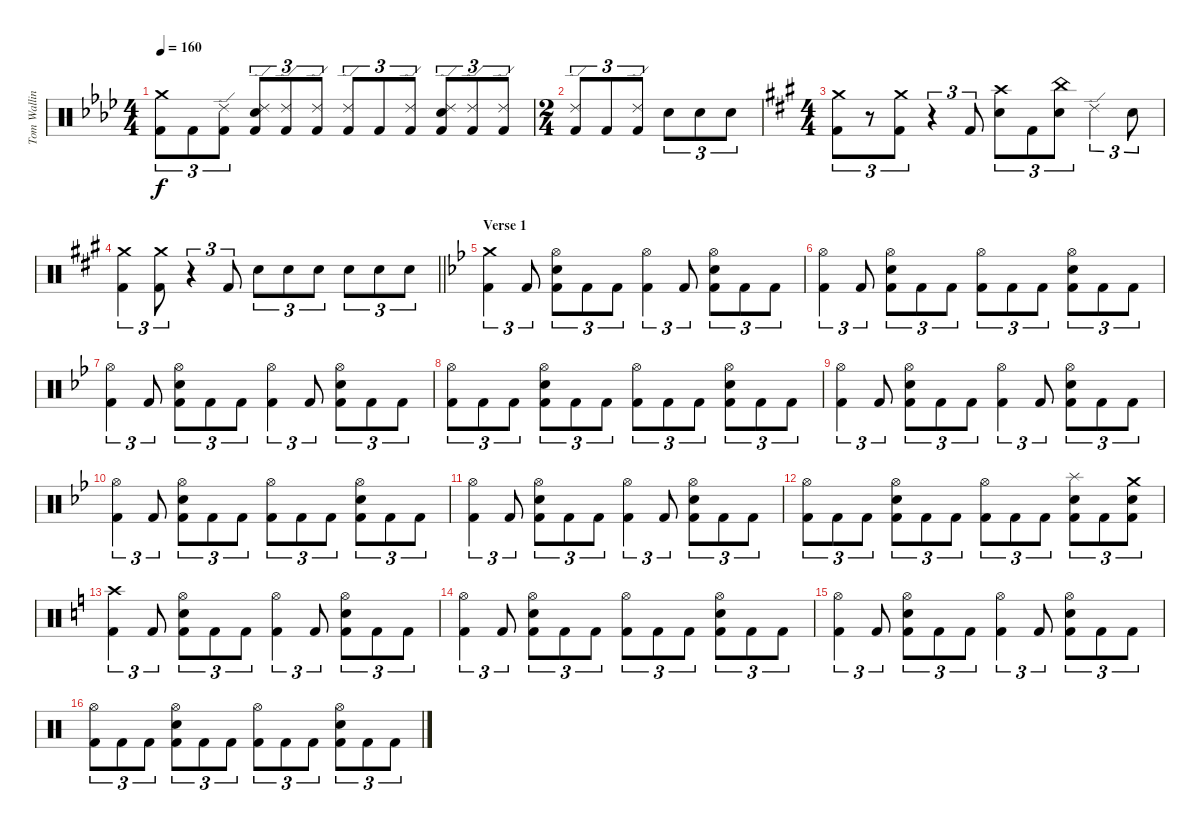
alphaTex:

\track ("Tom Walling (drums)" "Tom Wallin") {instrument percussion}
\staff {score}
\articulation defaults
\ts (4 4)
\tempo 160
\clef neutral
\ks fminor
("Crash medium (hit)" "Kick (hit) 2").8{tu (3 2) dy f} "Kick (hit) 2".8{tu (3 2)} ("Ride (edge) 2" "Kick (hit) 2").8{tu (3 2)} ("Ride (edge) 2" "Electric Snare (hit)" "Kick (hit) 2").8{tu (3 2)} ("Ride (edge) 2" "Kick (hit) 2").8{tu (3 2)} ("Ride (edge) 2" "Kick (hit) 2").8{tu (3 2)} ("Ride (edge) 2" "Kick (hit) 2").8{tu (3 2)} "Kick (hit) 2".8{tu (3 2)} ("Ride (edge) 2" "Kick (hit) 2").8{tu (3 2)} ("Ride (edge) 2" "Electric Snare (hit)" "Kick (hit) 2").8{tu (3 2)} ("Ride (edge) 2" "Kick (hit) 2").8{tu (3 2)} ("Ride (edge) 2" "Kick (hit) 2").8{tu (3 2)} |
\ts (2 4)
("Ride (edge) 2" "Kick (hit) 2").8{tu (3 2)} "Kick (hit) 2".8{tu (3 2)} ("Ride (edge) 2" "Kick (hit) 2").8{tu (3 2)} "Electric Snare (hit)".8{tu (3 2)} "Electric Snare (hit)".8{tu (3 2)} "Electric Snare (hit)".8{tu (3 2)} |
\ts (4 4)
\ks f#minor
("Crash medium (hit)" "Kick (hit) 2").8{tu (3 2)} r.8{tu (3 2)} ("Crash medium (hit)" "Kick (hit) 2").8{tu (3 2)} r.4{tu (3 2)} "Kick (hit) 2".8{tu (3 2)} ("Crash high (hit)" "Electric Snare (hit)").8{tu (3 2)} "Kick (hit) 2".8{tu (3 2)} ("China (hit)" "Electric Snare (hit)").8{tu (3 2)} "Ride (edge) 2".4{tu (3 2)} "Electric Snare (hit)".8{tu (3 2)} |
\barLineRight lightlight
("Crash medium (hit)" "Kick (hit) 2").4{tu (3 2)} ("Crash medium (hit)" "Kick (hit) 2").8{tu (3 2)} r.4{tu (3 2)} "Kick (hit) 2".8{tu (3 2)} "Electric Snare (hit)".8{tu (3 2)} "Electric Snare (hit)".8{tu (3 2)} "Electric Snare (hit)".8{tu (3 2)} "Electric Snare (hit)".8{tu (3 2)} "Electric Snare (hit)".8{tu (3 2)} "Electric Snare (hit)".8{tu (3 2)} |
\section ("" "Verse 1")
\ks gminor
("Crash medium (hit)" "Kick (hit) 2").4{tu (3 2)} "Kick (hit) 2".8{tu (3 2)} ("Hi-Hat (open)" "Electric Snare (hit)" "Kick (hit) 2").8{tu (3 2)} "Kick (hit) 2".8{tu (3 2)} "Kick (hit) 2".8{tu (3 2)} ("Hi-Hat (open)" "Kick (hit) 2").4{tu (3 2)} "Kick (hit) 2".8{tu (3 2)} ("Hi-Hat (open)" "Electric Snare (hit)" "Kick (hit) 2").8{tu (3 2)} "Kick (hit) 2".8{tu (3 2)} "Kick (hit) 2".8{tu (3 2)} |
("Hi-Hat (open)" "Kick (hit) 2").4{tu (3 2)} "Kick (hit) 2".8{tu (3 2)} ("Hi-Hat (open)" "Electric Snare (hit)" "Kick (hit) 2").8{tu (3 2)} "Kick (hit) 2".8{tu (3 2)} "Kick (hit) 2".8{tu (3 2)} ("Hi-Hat (open)" "Kick (hit) 2").8{tu (3 2)} "Kick (hit) 2".8{tu (3 2)} "Kick (hit) 2".8{tu (3 2)} ("Hi-Hat (open)" "Electric Snare (hit)" "Kick (hit) 2").8{tu (3 2)} "Kick (hit) 2".8{tu (3 2)} "Kick (hit) 2".8{tu (3 2)} |
("Hi-Hat (open)" "Kick (hit) 2").4{tu (3 2)} "Kick (hit) 2".8{tu (3 2)} ("Hi-Hat (open)" "Electric Snare (hit)" "Kick (hit) 2").8{tu (3 2)} "Kick (hit) 2".8{tu (3 2)} "Kick (hit) 2".8{tu (3 2)} ("Hi-Hat (open)" "Kick (hit) 2").4{tu (3 2)} "Kick (hit) 2".8{tu (3 2)} ("Hi-Hat (open)" "Electric Snare (hit)" "Kick (hit) 2").8{tu (3 2)} "Kick (hit) 2".8{tu (3 2)} "Kick (hit) 2".8{tu (3 2)} |
("Hi-Hat (open)" "Kick (hit) 2").8{tu (3 2)} "Kick (hit) 2".8{tu (3 2)} "Kick (hit) 2".8{tu (3 2)} ("Hi-Hat (open)" "Electric Snare (hit)" "Kick (hit) 2").8{tu (3 2)} "Kick (hit) 2".8{tu (3 2)} "Kick (hit) 2".8{tu (3 2)} ("Hi-Hat (open)" "Kick (hit) 2").8{tu (3 2)} "Kick (hit) 2".8{tu (3 2)} "Kick (hit) 2".8{tu (3 2)} ("Hi-Hat (open)" "Electric Snare (hit)" "Kick (hit) 2").8{tu (3 2)} "Kick (hit) 2".8{tu (3 2)} "Kick (hit) 2".8{tu (3 2)} |
("Hi-Hat (open)" "Kick (hit) 2").4{tu (3 2)} "Kick (hit) 2".8{tu (3 2)} ("Hi-Hat (open)" "Electric Snare (hit)" "Kick (hit) 2").8{tu (3 2)} "Kick (hit) 2".8{tu (3 2)} "Kick (hit) 2".8{tu (3 2)} ("Hi-Hat (open)" "Kick (hit) 2").4{tu (3 2)} "Kick (hit) 2".8{tu (3 2)} ("Hi-Hat (open)" "Electric Snare (hit)" "Kick (hit) 2").8{tu (3 2)} "Kick (hit) 2".8{tu (3 2)} "Kick (hit) 2".8{tu (3 2)} |
("Hi-Hat (open)" "Kick (hit) 2").4{tu (3 2)} "Kick (hit) 2".8{tu (3 2)} ("Hi-Hat (open)" "Electric Snare (hit)" "Kick (hit) 2").8{tu (3 2)} "Kick (hit) 2".8{tu (3 2)} "Kick (hit) 2".8{tu (3 2)} ("Hi-Hat (open)" "Kick (hit) 2").8{tu (3 2)} "Kick (hit) 2".8{tu (3 2)} "Kick (hit) 2".8{tu (3 2)} ("Hi-Hat (open)" "Electric Snare (hit)" "Kick (hit) 2").8{tu (3 2)} "Kick (hit) 2".8{tu (3 2)} "Kick (hit) 2".8{tu (3 2)} |
("Hi-Hat (open)" "Kick (hit) 2").4{tu (3 2)} "Kick (hit) 2".8{tu (3 2)} ("Hi-Hat (open)" "Electric Snare (hit)" "Kick (hit) 2").8{tu (3 2)} "Kick (hit) 2".8{tu (3 2)} "Kick (hit) 2".8{tu (3 2)} ("Hi-Hat (open)" "Kick (hit) 2").4{tu (3 2)} "Kick (hit) 2".8{tu (3 2)} ("Hi-Hat (open)" "Electric Snare (hit)" "Kick (hit) 2").8{tu (3 2)} "Kick (hit) 2".8{tu (3 2)} "Kick (hit) 2".8{tu (3 2)} |
("Hi-Hat (open)" "Kick (hit) 2").8{tu (3 2)} "Kick (hit) 2".8{tu (3 2)} "Kick (hit) 2".8{tu (3 2)} ("Hi-Hat (open)" "Electric Snare (hit)" "Kick (hit) 2").8{tu (3 2)} "Kick (hit) 2".8{tu (3 2)} "Kick (hit) 2".8{tu (3 2)} ("Hi-Hat (open)" "Kick (hit) 2").8{tu (3 2)} "Kick (hit) 2".8{tu (3 2)} "Kick (hit) 2".8{tu (3 2)} ("Kick (hit) 2" "Splash (hit)" "Electric Snare (hit)").8{tu (3 2)} "Kick (hit) 2".8{tu (3 2)} ("Kick (hit) 2" "Crash medium (hit)" "Electric Snare (hit)").8{tu (3 2)} |
\ks aminor
("Crash high (hit)" "Kick (hit) 2").4{tu (3 2)} "Kick (hit) 2".8{tu (3 2)} ("Hi-Hat (open)" "Electric Snare (hit)" "Kick (hit) 2").8{tu (3 2)} "Kick (hit) 2".8{tu (3 2)} "Kick (hit) 2".8{tu (3 2)} ("Hi-Hat (open)" "Kick (hit) 2").4{tu (3 2)} "Kick (hit) 2".8{tu (3 2)} ("Hi-Hat (open)" "Electric Snare (hit)" "Kick (hit) 2").8{tu (3 2)} "Kick (hit) 2".8{tu (3 2)} "Kick (hit) 2".8{tu (3 2)} |
("Hi-Hat (open)" "Kick (hit) 2").4{tu (3 2)} "Kick (hit) 2".8{tu (3 2)} ("Hi-Hat (open)" "Electric Snare (hit)" "Kick (hit) 2").8{tu (3 2)} "Kick (hit) 2".8{tu (3 2)} "Kick (hit) 2".8{tu (3 2)} ("Hi-Hat (open)" "Kick (hit) 2").8{tu (3 2)} "Kick (hit) 2".8{tu (3 2)} "Kick (hit) 2".8{tu (3 2)} ("Hi-Hat (open)" "Electric Snare (hit)" "Kick (hit) 2").8{tu (3 2)} "Kick (hit) 2".8{tu (3 2)} "Kick (hit) 2".8{tu (3 2)} |
("Hi-Hat (open)" "Kick (hit) 2").4{tu (3 2)} "Kick (hit) 2".8{tu (3 2)} ("Hi-Hat (open)" "Electric Snare (hit)" "Kick (hit) 2").8{tu (3 2)} "Kick (hit) 2".8{tu (3 2)} "Kick (hit) 2".8{tu (3 2)} ("Hi-Hat (open)" "Kick (hit) 2").4{tu (3 2)} "Kick (hit) 2".8{tu (3 2)} ("Hi-Hat (open)" "Electric Snare (hit)" "Kick (hit) 2").8{tu (3 2)} "Kick (hit) 2".8{tu (3 2)} "Kick (hit) 2".8{tu (3 2)} |
("Hi-Hat (open)" "Kick (hit) 2").8{tu (3 2)} "Kick (hit) 2".8{tu (3 2)} "Kick (hit) 2".8{tu (3 2)} ("Hi-Hat (open)" "Electric Snare (hit)" "Kick (hit) 2").8{tu (3 2)} "Kick (hit) 2".8{tu (3 2)} "Kick (hit) 2".8{tu (3 2)} ("Hi-Hat (open)" "Kick (hit) 2").8{tu (3 2)} "Kick (hit) 2".8{tu (3 2)} "Kick (hit) 2".8{tu (3 2)} ("Hi-Hat (open)" "Electric Snare (hit)" "Kick (hit) 2").8{tu (3 2)} "Kick (hit) 2".8{tu (3 2)} "Kick (hit) 2".8{tu (3 2)}
